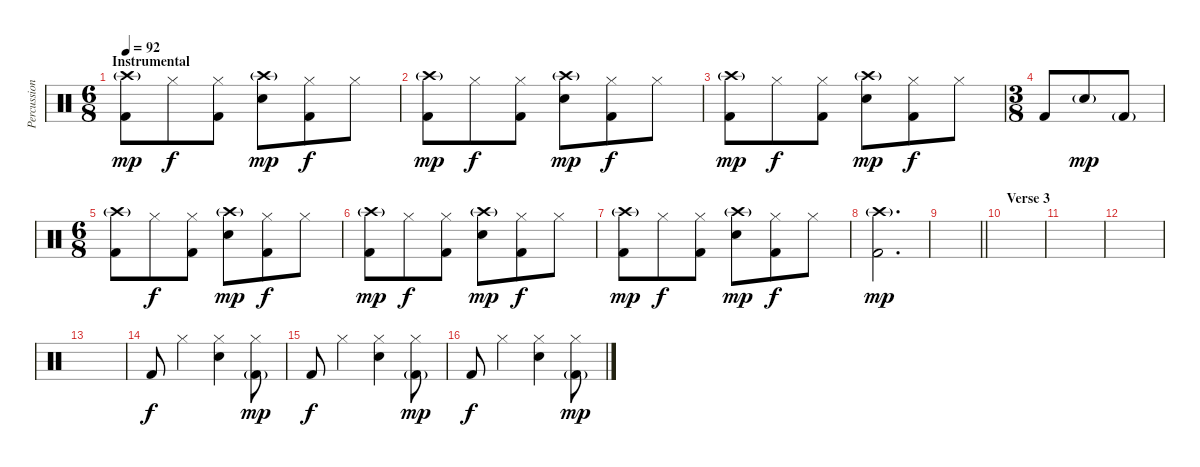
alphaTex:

\track ("Percussion" "Percussion") {instrument percussion}
\staff {score}
\articulation defaults
\ts (6 8)
\section ("" "Instrumental")
\tempo 92
\clef neutral
\ks c
("Crash high (hit)"{g} "Kick (hit) 2").8{dy mp} "Hi-Hat (closed)".8{dy f} ("Hi-Hat (closed)" "Kick (hit) 2").8 ("Crash high (hit)"{g} "Snare (hit) 2").8{dy mp} ("Hi-Hat (closed)" "Kick (hit) 2").8{dy f} "Hi-Hat (closed)".8 |
("Crash high (hit)"{g} "Kick (hit) 2").8{dy mp} "Hi-Hat (closed)".8{dy f} ("Hi-Hat (closed)" "Kick (hit) 2").8 ("Crash high (hit)"{g} "Snare (hit) 2").8{dy mp} ("Hi-Hat (closed)" "Kick (hit) 2").8{dy f} "Hi-Hat (closed)".8 |
("Crash high (hit)"{g} "Kick (hit) 2").8{dy mp} "Hi-Hat (closed)".8{dy f} ("Hi-Hat (closed)" "Kick (hit) 2").8 ("Crash high (hit)"{g} "Snare (hit) 2").8{dy mp} ("Hi-Hat (closed)" "Kick (hit) 2").8{dy f} "Hi-Hat (closed)".8 |
\ts (3 8)
"Kick (hit) 2".8 "Snare (hit) 2"{g}.8{dy mp} "Kick (hit) 2"{g}.8 |
\ts (6 8)
("Crash high (hit)"{g} "Kick (hit) 2").8 "Hi-Hat (closed)".8{dy f} ("Hi-Hat (closed)" "Kick (hit) 2").8 ("Crash high (hit)"{g} "Snare (hit) 2").8{dy mp} ("Hi-Hat (closed)" "Kick (hit) 2").8{dy f} "Hi-Hat (closed)".8 |
("Crash high (hit)"{g} "Kick (hit) 2").8{dy mp} "Hi-Hat (closed)".8{dy f} ("Hi-Hat (closed)" "Kick (hit) 2").8 ("Crash high (hit)"{g} "Snare (hit) 2").8{dy mp} ("Hi-Hat (closed)" "Kick (hit) 2").8{dy f} "Hi-Hat (closed)".8 |
("Crash high (hit)"{g} "Kick (hit) 2").8{dy mp} "Hi-Hat (closed)".8{dy f} ("Hi-Hat (closed)" "Kick (hit) 2").8 ("Crash high (hit)"{g} "Snare (hit) 2").8{dy mp} ("Hi-Hat (closed)" "Kick (hit) 2").8{dy f} "Hi-Hat (closed)".8 |
("Crash high (hit)"{g} "Kick (hit) 2").2{d dy mp} |
\barLineRight lightlight
|
\section ("" "Verse 3")
|
|
|
|
"Kick (hit) 2".8{dy f} "Hi-Hat (closed)".4 ("Hi-Hat (closed)" "Snare (hit) 2").4 ("Hi-Hat (closed)" "Kick (hit) 2"{g}).8{dy mp} |
"Kick (hit) 2".8{dy f} "Hi-Hat (closed)".4 ("Hi-Hat (closed)" "Snare (hit) 2").4 ("Hi-Hat (closed)" "Kick (hit) 2"{g}).8{dy mp} |
"Kick (hit) 2".8{dy f} "Hi-Hat (closed)".4 ("Hi-Hat (closed)" "Snare (hit) 2").4 ("Hi-Hat (closed)" "Kick (hit) 2"{g}).8{dy mp}
